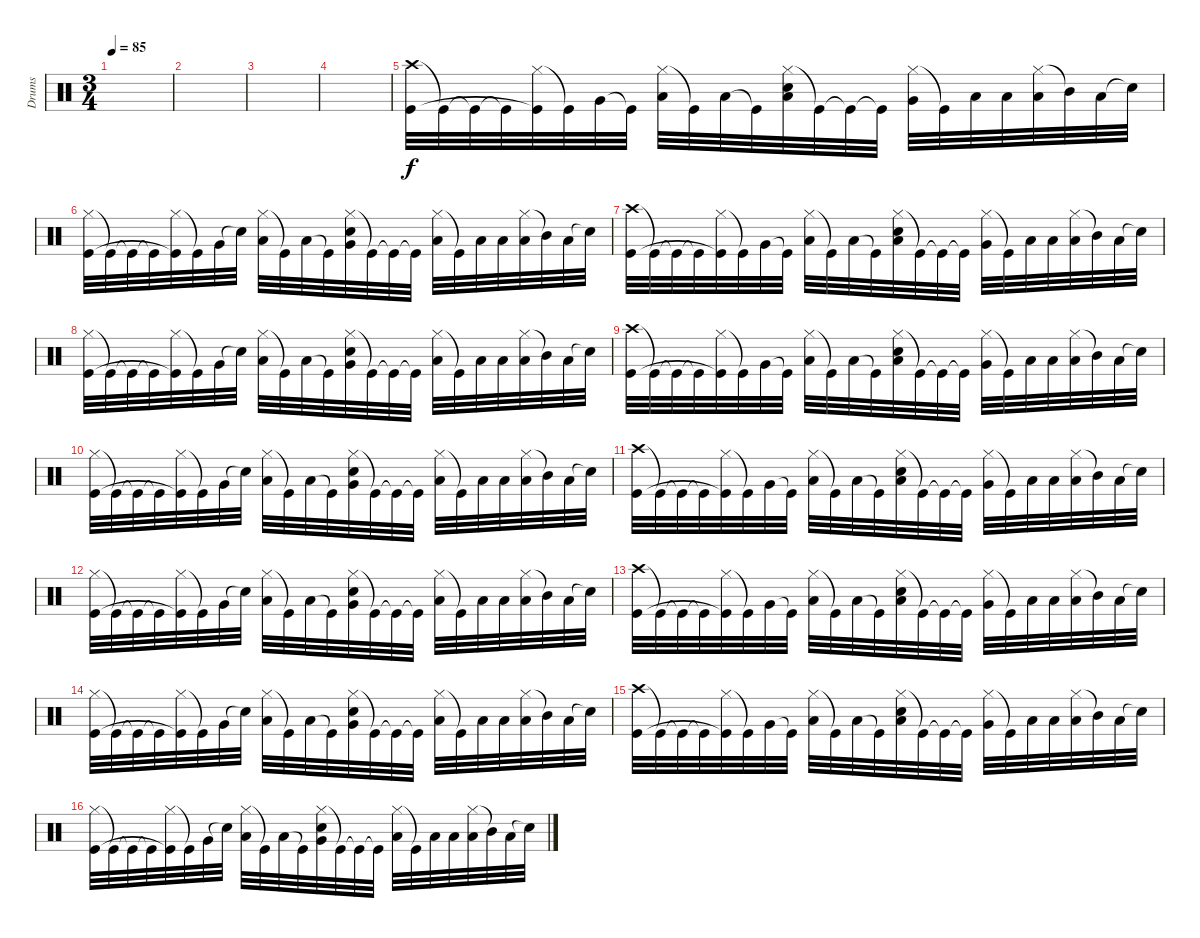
\track ("Drums" "Drums") {instrument percussion}
\staff {score}
\articulation defaults
\ts (3 4)
\tempo 85
\clef neutral
\ks c
|
|
|
|
("Crash high (hit)" "Kick (hit)").32 "Kick (hit)"{t}.32 "Kick (hit)"{t}.32 "Kick (hit)"{t}.32 ("Hi-Hat (closed)" "Kick (hit)"{t}).32 "Kick (hit)"{t}.32 "Very Low Tom (hit)".32 "Kick (hit)"{t}.32 ("Hi-Hat (closed)" "Low Floor Tom (hit)").32 "Kick (hit)"{t}.32 "Low Floor Tom (hit)".32 "Kick (hit)"{t}.32 ("Hi-Hat (closed)" "Low Floor Tom (hit)" "Electric Snare (hit)").32 "Kick (hit)"{t}.32 "Kick (hit)"{t}.32 "Kick (hit)"{t}.32 ("Hi-Hat (closed)" "Very Low Tom (hit)").32 "Kick (hit)"{t}.32 "Low Floor Tom (hit)".32 "Low Floor Tom (hit)".32 ("Hi-Hat (closed)" "Low Floor Tom (hit)").32 "Mid Tom (hit)"{t}.32 "Low Floor Tom (hit)".32 "Snare (hit)"{t}.32 |
("Hi-Hat (closed)" "Kick (hit)").32 "Kick (hit)"{t}.32 "Kick (hit)"{t}.32 "Kick (hit)"{t}.32 ("Hi-Hat (closed)" "Kick (hit)"{t}).32 "Kick (hit)"{t}.32 "Very Low Tom (hit)".32 "Snare (hit)"{t}.32 ("Hi-Hat (closed)" "Low Floor Tom (hit)").32 "Kick (hit)"{t}.32 "Low Floor Tom (hit)".32 "Kick (hit)"{t}.32 ("Hi-Hat (closed)" "Very Low Tom (hit)" "Electric Snare (hit)").32 "Kick (hit)"{t}.32 "Kick (hit)"{t}.32 "Kick (hit)"{t}.32 ("Hi-Hat (closed)" "Low Floor Tom (hit)").32 "Kick (hit)"{t}.32 "Low Floor Tom (hit)".32 "Low Floor Tom (hit)".32 ("Hi-Hat (closed)" "Low Floor Tom (hit)").32 "Mid Tom (hit)"{t}.32 "Low Floor Tom (hit)".32 "Snare (hit)"{t}.32 |
("Crash high (hit)" "Kick (hit)").32 "Kick (hit)"{t}.32 "Kick (hit)"{t}.32 "Kick (hit)"{t}.32 ("Hi-Hat (closed)" "Kick (hit)"{t}).32 "Kick (hit)"{t}.32 "Very Low Tom (hit)".32 "Kick (hit)"{t}.32 ("Hi-Hat (closed)" "Low Floor Tom (hit)").32 "Kick (hit)"{t}.32 "Low Floor Tom (hit)".32 "Kick (hit)"{t}.32 ("Hi-Hat (closed)" "Low Floor Tom (hit)" "Electric Snare (hit)").32 "Kick (hit)"{t}.32 "Kick (hit)"{t}.32 "Kick (hit)"{t}.32 ("Hi-Hat (closed)" "Very Low Tom (hit)").32 "Kick (hit)"{t}.32 "Low Floor Tom (hit)".32 "Low Floor Tom (hit)".32 ("Hi-Hat (closed)" "Low Floor Tom (hit)").32 "Mid Tom (hit)"{t}.32 "Low Floor Tom (hit)".32 "Snare (hit)"{t}.32 |
("Hi-Hat (closed)" "Kick (hit)").32 "Kick (hit)"{t}.32 "Kick (hit)"{t}.32 "Kick (hit)"{t}.32 ("Hi-Hat (closed)" "Kick (hit)"{t}).32 "Kick (hit)"{t}.32 "Very Low Tom (hit)".32 "Snare (hit)"{t}.32 ("Hi-Hat (closed)" "Low Floor Tom (hit)").32 "Kick (hit)"{t}.32 "Low Floor Tom (hit)".32 "Kick (hit)"{t}.32 ("Hi-Hat (closed)" "Very Low Tom (hit)" "Electric Snare (hit)").32 "Kick (hit)"{t}.32 "Kick (hit)"{t}.32 "Kick (hit)"{t}.32 ("Hi-Hat (closed)" "Low Floor Tom (hit)").32 "Kick (hit)"{t}.32 "Low Floor Tom (hit)".32 "Low Floor Tom (hit)".32 ("Hi-Hat (closed)" "Low Floor Tom (hit)").32 "Mid Tom (hit)"{t}.32 "Low Floor Tom (hit)".32 "Snare (hit)"{t}.32 |
("Crash high (hit)" "Kick (hit)").32 "Kick (hit)"{t}.32 "Kick (hit)"{t}.32 "Kick (hit)"{t}.32 ("Hi-Hat (closed)" "Kick (hit)"{t}).32 "Kick (hit)"{t}.32 "Very Low Tom (hit)".32 "Kick (hit)"{t}.32 ("Hi-Hat (closed)" "Low Floor Tom (hit)").32 "Kick (hit)"{t}.32 "Low Floor Tom (hit)".32 "Kick (hit)"{t}.32 ("Hi-Hat (closed)" "Low Floor Tom (hit)" "Electric Snare (hit)").32 "Kick (hit)"{t}.32 "Kick (hit)"{t}.32 "Kick (hit)"{t}.32 ("Hi-Hat (closed)" "Very Low Tom (hit)").32 "Kick (hit)"{t}.32 "Low Floor Tom (hit)".32 "Low Floor Tom (hit)".32 ("Hi-Hat (closed)" "Low Floor Tom (hit)").32 "Mid Tom (hit)"{t}.32 "Low Floor Tom (hit)".32 "Snare (hit)"{t}.32 |
("Hi-Hat (closed)" "Kick (hit)").32 "Kick (hit)"{t}.32 "Kick (hit)"{t}.32 "Kick (hit)"{t}.32 ("Hi-Hat (closed)" "Kick (hit)"{t}).32 "Kick (hit)"{t}.32 "Very Low Tom (hit)".32 "Snare (hit)"{t}.32 ("Hi-Hat (closed)" "Low Floor Tom (hit)").32 "Kick (hit)"{t}.32 "Low Floor Tom (hit)".32 "Kick (hit)"{t}.32 ("Hi-Hat (closed)" "Very Low Tom (hit)" "Electric Snare (hit)").32 "Kick (hit)"{t}.32 "Kick (hit)"{t}.32 "Kick (hit)"{t}.32 ("Hi-Hat (closed)" "Low Floor Tom (hit)").32 "Kick (hit)"{t}.32 "Low Floor Tom (hit)".32 "Low Floor Tom (hit)".32 ("Hi-Hat (closed)" "Low Floor Tom (hit)").32 "Mid Tom (hit)"{t}.32 "Low Floor Tom (hit)".32 "Snare (hit)"{t}.32 |
("Crash high (hit)" "Kick (hit)").32 "Kick (hit)"{t}.32 "Kick (hit)"{t}.32 "Kick (hit)"{t}.32 ("Hi-Hat (closed)" "Kick (hit)"{t}).32 "Kick (hit)"{t}.32 "Very Low Tom (hit)".32 "Kick (hit)"{t}.32 ("Hi-Hat (closed)" "Low Floor Tom (hit)").32 "Kick (hit)"{t}.32 "Low Floor Tom (hit)".32 "Kick (hit)"{t}.32 ("Hi-Hat (closed)" "Low Floor Tom (hit)" "Electric Snare (hit)").32 "Kick (hit)"{t}.32 "Kick (hit)"{t}.32 "Kick (hit)"{t}.32 ("Hi-Hat (closed)" "Very Low Tom (hit)").32 "Kick (hit)"{t}.32 "Low Floor Tom (hit)".32 "Low Floor Tom (hit)".32 ("Hi-Hat (closed)" "Low Floor Tom (hit)").32 "Mid Tom (hit)"{t}.32 "Low Floor Tom (hit)".32 "Snare (hit)"{t}.32 |
("Hi-Hat (closed)" "Kick (hit)").32 "Kick (hit)"{t}.32 "Kick (hit)"{t}.32 "Kick (hit)"{t}.32 ("Hi-Hat (closed)" "Kick (hit)"{t}).32 "Kick (hit)"{t}.32 "Very Low Tom (hit)".32 "Snare (hit)"{t}.32 ("Hi-Hat (closed)" "Low Floor Tom (hit)").32 "Kick (hit)"{t}.32 "Low Floor Tom (hit)".32 "Kick (hit)"{t}.32 ("Hi-Hat (closed)" "Very Low Tom (hit)" "Electric Snare (hit)").32 "Kick (hit)"{t}.32 "Kick (hit)"{t}.32 "Kick (hit)"{t}.32 ("Hi-Hat (closed)" "Low Floor Tom (hit)").32 "Kick (hit)"{t}.32 "Low Floor Tom (hit)".32 "Low Floor Tom (hit)".32 ("Hi-Hat (closed)" "Low Floor Tom (hit)").32 "Mid Tom (hit)"{t}.32 "Low Floor Tom (hit)".32 "Snare (hit)"{t}.32 |
("Crash high (hit)" "Kick (hit)").32 "Kick (hit)"{t}.32 "Kick (hit)"{t}.32 "Kick (hit)"{t}.32 ("Hi-Hat (closed)" "Kick (hit)"{t}).32 "Kick (hit)"{t}.32 "Very Low Tom (hit)".32 "Kick (hit)"{t}.32 ("Hi-Hat (closed)" "Low Floor Tom (hit)").32 "Kick (hit)"{t}.32 "Low Floor Tom (hit)".32 "Kick (hit)"{t}.32 ("Hi-Hat (closed)" "Low Floor Tom (hit)" "Electric Snare (hit)").32 "Kick (hit)"{t}.32 "Kick (hit)"{t}.32 "Kick (hit)"{t}.32 ("Hi-Hat (closed)" "Very Low Tom (hit)").32 "Kick (hit)"{t}.32 "Low Floor Tom (hit)".32 "Low Floor Tom (hit)".32 ("Hi-Hat (closed)" "Low Floor Tom (hit)").32 "Mid Tom (hit)"{t}.32 "Low Floor Tom (hit)".32 "Snare (hit)"{t}.32 |
("Hi-Hat (closed)" "Kick (hit)").32 "Kick (hit)"{t}.32 "Kick (hit)"{t}.32 "Kick (hit)"{t}.32 ("Hi-Hat (closed)" "Kick (hit)"{t}).32 "Kick (hit)"{t}.32 "Very Low Tom (hit)".32 "Snare (hit)"{t}.32 ("Hi-Hat (closed)" "Low Floor Tom (hit)").32 "Kick (hit)"{t}.32 "Low Floor Tom (hit)".32 "Kick (hit)"{t}.32 ("Hi-Hat (closed)" "Very Low Tom (hit)" "Electric Snare (hit)").32 "Kick (hit)"{t}.32 "Kick (hit)"{t}.32 "Kick (hit)"{t}.32 ("Hi-Hat (closed)" "Low Floor Tom (hit)").32 "Kick (hit)"{t}.32 "Low Floor Tom (hit)".32 "Low Floor Tom (hit)".32 ("Hi-Hat (closed)" "Low Floor Tom (hit)").32 "Mid Tom (hit)"{t}.32 "Low Floor Tom (hit)".32 "Snare (hit)"{t}.32 |
("Crash high (hit)" "Kick (hit)").32 "Kick (hit)"{t}.32 "Kick (hit)"{t}.32 "Kick (hit)"{t}.32 ("Hi-Hat (closed)" "Kick (hit)"{t}).32 "Kick (hit)"{t}.32 "Very Low Tom (hit)".32 "Kick (hit)"{t}.32 ("Hi-Hat (closed)" "Low Floor Tom (hit)").32 "Kick (hit)"{t}.32 "Low Floor Tom (hit)".32 "Kick (hit)"{t}.32 ("Hi-Hat (closed)" "Low Floor Tom (hit)" "Electric Snare (hit)").32 "Kick (hit)"{t}.32 "Kick (hit)"{t}.32 "Kick (hit)"{t}.32 ("Hi-Hat (closed)" "Very Low Tom (hit)").32 "Kick (hit)"{t}.32 "Low Floor Tom (hit)".32 "Low Floor Tom (hit)".32 ("Hi-Hat (closed)" "Low Floor Tom (hit)").32 "Mid Tom (hit)"{t}.32 "Low Floor Tom (hit)".32 "Snare (hit)"{t}.32 |
("Hi-Hat (closed)" "Kick (hit)").32 "Kick (hit)"{t}.32 "Kick (hit)"{t}.32 "Kick (hit)"{t}.32 ("Hi-Hat (closed)" "Kick (hit)"{t}).32 "Kick (hit)"{t}.32 "Very Low Tom (hit)".32 "Snare (hit)"{t}.32 ("Hi-Hat (closed)" "Low Floor Tom (hit)").32 "Kick (hit)"{t}.32 "Low Floor Tom (hit)".32 "Kick (hit)"{t}.32 ("Hi-Hat (closed)" "Very Low Tom (hit)" "Electric Snare (hit)").32 "Kick (hit)"{t}.32 "Kick (hit)"{t}.32 "Kick (hit)"{t}.32 ("Hi-Hat (closed)" "Low Floor Tom (hit)").32 "Kick (hit)"{t}.32 "Low Floor Tom (hit)".32 "Low Floor Tom (hit)".32 ("Hi-Hat (closed)" "Low Floor Tom (hit)").32 "Mid Tom (hit)"{t}.32 "Low Floor Tom (hit)".32 "Snare (hit)"{t}.32
